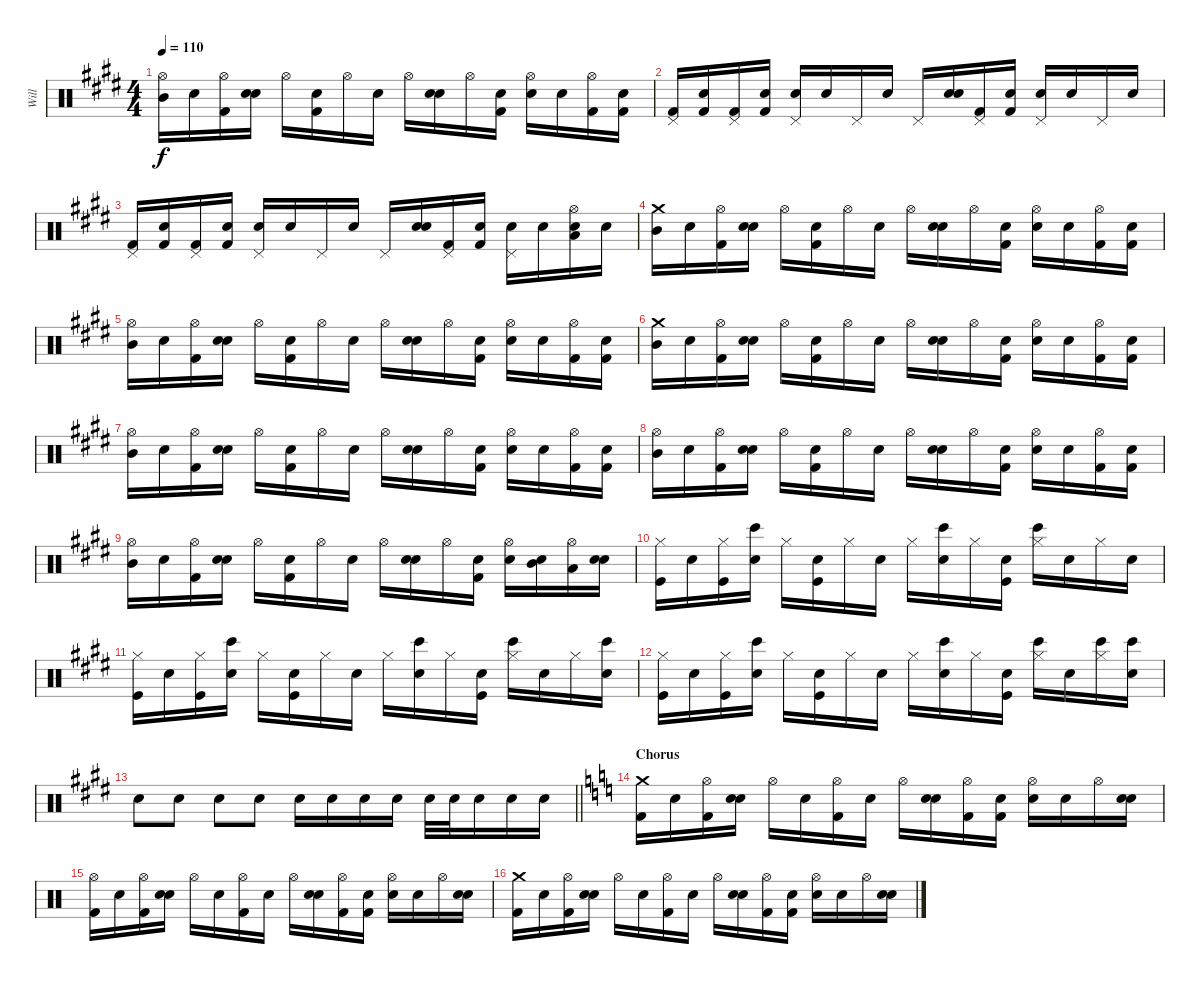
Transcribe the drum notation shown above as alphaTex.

\track ("Will" "Will") {instrument percussion}
\staff {score}
\articulation defaults
\ts (4 4)
\tempo 110
\clef neutral
\ks e
("Hi-Hat (open)" "Mid Tom (hit)").16{dy f} "Snare (hit)".16 ("Hi-Hat (open)" "Kick (hit) 2").16 ("Snare (hit)" "Electric Snare (hit)").16 "Hi-Hat (open)".16 ("Snare (hit)" "Kick (hit) 2").16 "Hi-Hat (open)".16 "Snare (hit)".16 "Hi-Hat (open)".16 ("Snare (hit)" "Electric Snare (hit)").16 "Hi-Hat (open)".16 ("Snare (hit)" "Kick (hit) 2").16 ("Hi-Hat (open)" "Electric Snare (hit)").16 "Snare (hit)".16 ("Hi-Hat (open)" "Kick (hit) 2").16 ("Snare (hit)" "Kick (hit) 2").16 |
("Pedal Hi-Hat (hit)" "Kick (hit) 2").16{volume 10} ("Snare (hit)" "Kick (hit) 2").16 ("Pedal Hi-Hat (hit)" "Kick (hit) 2").16 ("Snare (hit)" "Kick (hit) 2").16 ("Pedal Hi-Hat (hit)" "Electric Snare (hit)").16 "Snare (hit)".16 "Pedal Hi-Hat (hit)".16 "Snare (hit)".16 "Pedal Hi-Hat (hit)".16 ("Snare (hit)" "Electric Snare (hit)").16 ("Pedal Hi-Hat (hit)" "Kick (hit) 2").16 ("Snare (hit)" "Kick (hit) 2").16 ("Pedal Hi-Hat (hit)" "Electric Snare (hit)").16 "Snare (hit)".16 "Pedal Hi-Hat (hit)".16 "Snare (hit)".16 |
("Pedal Hi-Hat (hit)" "Kick (hit) 2").16 ("Snare (hit)" "Kick (hit) 2").16 ("Pedal Hi-Hat (hit)" "Kick (hit) 2").16 ("Snare (hit)" "Kick (hit) 2").16 ("Pedal Hi-Hat (hit)" "Electric Snare (hit)").16 "Snare (hit)".16 "Pedal Hi-Hat (hit)".16 "Snare (hit)".16 "Pedal Hi-Hat (hit)".16 ("Snare (hit)" "Electric Snare (hit)").16 ("Pedal Hi-Hat (hit)" "Kick (hit) 2").16 ("Snare (hit)" "Kick (hit) 2").16 ("Pedal Hi-Hat (hit)" "Electric Snare (hit)").16 "Snare (hit)".16 ("Hi-Hat (open)" "Electric Snare (hit)" "Low Tom (hit)").16 "Snare (hit)".16 |
("Crash medium (hit)" "Mid Tom (hit)").16{volume 13} "Snare (hit)".16 ("Hi-Hat (open)" "Kick (hit) 2").16 ("Snare (hit)" "Electric Snare (hit)").16 "Hi-Hat (open)".16 ("Snare (hit)" "Kick (hit) 2").16 "Hi-Hat (open)".16 "Snare (hit)".16 "Hi-Hat (open)".16 ("Snare (hit)" "Electric Snare (hit)").16 "Hi-Hat (open)".16 ("Snare (hit)" "Kick (hit) 2").16 ("Hi-Hat (open)" "Electric Snare (hit)").16 "Snare (hit)".16 ("Hi-Hat (open)" "Kick (hit) 2").16 ("Snare (hit)" "Kick (hit) 2").16 |
("Hi-Hat (open)" "Mid Tom (hit)").16 "Snare (hit)".16 ("Hi-Hat (open)" "Kick (hit) 2").16 ("Snare (hit)" "Electric Snare (hit)").16 "Hi-Hat (open)".16 ("Snare (hit)" "Kick (hit) 2").16 "Hi-Hat (open)".16 "Snare (hit)".16 "Hi-Hat (open)".16 ("Snare (hit)" "Electric Snare (hit)").16 "Hi-Hat (open)".16 ("Snare (hit)" "Kick (hit) 2").16 ("Hi-Hat (open)" "Electric Snare (hit)").16 "Snare (hit)".16 ("Hi-Hat (open)" "Kick (hit) 2").16 ("Snare (hit)" "Kick (hit) 2").16 |
("Crash medium (hit)" "Mid Tom (hit)").16 "Snare (hit)".16 ("Hi-Hat (open)" "Kick (hit) 2").16 ("Snare (hit)" "Electric Snare (hit)").16 "Hi-Hat (open)".16 ("Snare (hit)" "Kick (hit) 2").16 "Hi-Hat (open)".16 "Snare (hit)".16 "Hi-Hat (open)".16 ("Snare (hit)" "Electric Snare (hit)").16 "Hi-Hat (open)".16 ("Snare (hit)" "Kick (hit) 2").16 ("Hi-Hat (open)" "Electric Snare (hit)").16 "Snare (hit)".16 ("Hi-Hat (open)" "Kick (hit) 2").16 ("Snare (hit)" "Kick (hit) 2").16 |
("Hi-Hat (open)" "Mid Tom (hit)").16 "Snare (hit)".16 ("Hi-Hat (open)" "Kick (hit) 2").16 ("Snare (hit)" "Electric Snare (hit)").16 "Hi-Hat (open)".16 ("Snare (hit)" "Kick (hit) 2").16 "Hi-Hat (open)".16 "Snare (hit)".16 "Hi-Hat (open)".16 ("Snare (hit)" "Electric Snare (hit)").16 "Hi-Hat (open)".16 ("Snare (hit)" "Kick (hit) 2").16 ("Hi-Hat (open)" "Electric Snare (hit)").16 "Snare (hit)".16 ("Hi-Hat (open)" "Kick (hit) 2").16 ("Snare (hit)" "Kick (hit) 2").16 |
("Hi-Hat (open)" "Mid Tom (hit)").16 "Snare (hit)".16 ("Hi-Hat (open)" "Kick (hit) 2").16 ("Snare (hit)" "Electric Snare (hit)").16 "Hi-Hat (open)".16 ("Snare (hit)" "Kick (hit) 2").16 "Hi-Hat (open)".16 "Snare (hit)".16 "Hi-Hat (open)".16 ("Snare (hit)" "Electric Snare (hit)").16 "Hi-Hat (open)".16 ("Snare (hit)" "Kick (hit) 2").16 ("Hi-Hat (open)" "Electric Snare (hit)").16 "Snare (hit)".16 ("Hi-Hat (open)" "Kick (hit) 2").16 ("Snare (hit)" "Kick (hit) 2").16 |
("Hi-Hat (open)" "Mid Tom (hit)").16 "Snare (hit)".16 ("Hi-Hat (open)" "Kick (hit) 2").16 ("Snare (hit)" "Electric Snare (hit)").16 "Hi-Hat (open)".16 ("Snare (hit)" "Kick (hit) 2").16 "Hi-Hat (open)".16 "Snare (hit)".16 "Hi-Hat (open)".16 ("Snare (hit)" "Electric Snare (hit)").16 "Hi-Hat (open)".16 ("Snare (hit)" "Kick (hit) 2").16 ("Hi-Hat (open)" "Electric Snare (hit)").16 ("Snare (hit)" "Mid Tom (hit)").16 ("Hi-Hat (open)" "Low Tom (hit)").16 ("Snare (hit)" "Electric Snare (hit)").16 |
("Hi-Hat (closed)" "Kick (hit)").16 "Snare (hit)".16 ("Hi-Hat (closed)" "Kick (hit)").16 ("Snare (hit)" "Bongo High (hit)").16 "Hi-Hat (closed)".16 ("Snare (hit)" "Kick (hit)").16 "Hi-Hat (closed)".16 "Snare (hit)".16 "Hi-Hat (closed)".16 ("Snare (hit)" "Bongo High (hit)").16 "Hi-Hat (closed)".16 ("Snare (hit)" "Kick (hit)").16 ("Hi-Hat (closed)" "Bongo High (hit)").16 "Snare (hit)".16 "Hi-Hat (closed)".16 "Snare (hit)".16 |
("Hi-Hat (closed)" "Kick (hit)").16 "Snare (hit)".16 ("Hi-Hat (closed)" "Kick (hit)").16 ("Snare (hit)" "Bongo High (hit)").16 "Hi-Hat (closed)".16 ("Snare (hit)" "Kick (hit)").16 "Hi-Hat (closed)".16 "Snare (hit)".16 "Hi-Hat (closed)".16 ("Snare (hit)" "Bongo High (hit)").16 "Hi-Hat (closed)".16 ("Snare (hit)" "Kick (hit)").16 ("Hi-Hat (closed)" "Bongo High (hit)").16 "Snare (hit)".16 "Hi-Hat (closed)".16 ("Snare (hit)" "Bongo High (hit)").16 |
("Hi-Hat (closed)" "Kick (hit)").16 "Snare (hit)".16 ("Hi-Hat (closed)" "Kick (hit)").16 ("Snare (hit)" "Bongo High (hit)").16 "Hi-Hat (closed)".16 ("Snare (hit)" "Kick (hit)").16 "Hi-Hat (closed)".16 "Snare (hit)".16 "Hi-Hat (closed)".16 ("Snare (hit)" "Bongo High (hit)").16 "Hi-Hat (closed)".16 ("Snare (hit)" "Kick (hit)").16 ("Hi-Hat (closed)" "Bongo High (hit)").16 "Snare (hit)".16 ("Hi-Hat (closed)" "Bongo High (hit)").16 ("Snare (hit)" "Bongo High (hit)").16 |
\barLineRight lightlight "Electric Snare (hit)".8 "Electric Snare (hit)".8 "Electric Snare (hit)".8 "Electric Snare (hit)".8 "Electric Snare (hit)".16 "Electric Snare (hit)".16 "Electric Snare (hit)".16 "Electric Snare (hit)".16 "Electric Snare (hit)".32 "Electric Snare (hit)".32 "Electric Snare (hit)".16 "Electric Snare (hit)".16 "Electric Snare (hit)".16
|
\section ("" "Chorus")
\ks c
("Crash medium (hit)" "Kick (hit) 2").16 "Snare (hit)".16 ("Hi-Hat (open)" "Kick (hit) 2").16 ("Snare (hit)" "Electric Snare (hit)").16 "Hi-Hat (open)".16 "Snare (hit)".16 ("Hi-Hat (open)" "Kick (hit) 2").16 "Snare (hit)".16 "Hi-Hat (open)".16 ("Snare (hit)" "Electric Snare (hit)").16 ("Hi-Hat (open)" "Kick (hit) 2").16 ("Snare (hit)" "Kick (hit) 2").16 ("Hi-Hat (open)" "Electric Snare (hit)").16 "Snare (hit)".16 "Hi-Hat (open)".16 ("Snare (hit)" "Electric Snare (hit)").16 |
("Hi-Hat (open)" "Kick (hit) 2").16 "Snare (hit)".16 ("Hi-Hat (open)" "Kick (hit) 2").16 ("Snare (hit)" "Electric Snare (hit)").16 "Hi-Hat (open)".16 "Snare (hit)".16 ("Hi-Hat (open)" "Kick (hit) 2").16 "Snare (hit)".16 "Hi-Hat (open)".16 ("Snare (hit)" "Electric Snare (hit)").16 ("Hi-Hat (open)" "Kick (hit) 2").16 ("Snare (hit)" "Kick (hit) 2").16 ("Hi-Hat (open)" "Electric Snare (hit)").16 "Snare (hit)".16 "Hi-Hat (open)".16 ("Snare (hit)" "Electric Snare (hit)").16 |
("Crash medium (hit)" "Kick (hit) 2").16 "Snare (hit)".16 ("Hi-Hat (open)" "Kick (hit) 2").16 ("Snare (hit)" "Electric Snare (hit)").16 "Hi-Hat (open)".16 "Snare (hit)".16 ("Hi-Hat (open)" "Kick (hit) 2").16 "Snare (hit)".16 "Hi-Hat (open)".16 ("Snare (hit)" "Electric Snare (hit)").16 ("Hi-Hat (open)" "Kick (hit) 2").16 ("Snare (hit)" "Kick (hit) 2").16 ("Hi-Hat (open)" "Electric Snare (hit)").16 "Snare (hit)".16 "Hi-Hat (open)".16 ("Snare (hit)" "Electric Snare (hit)").16
